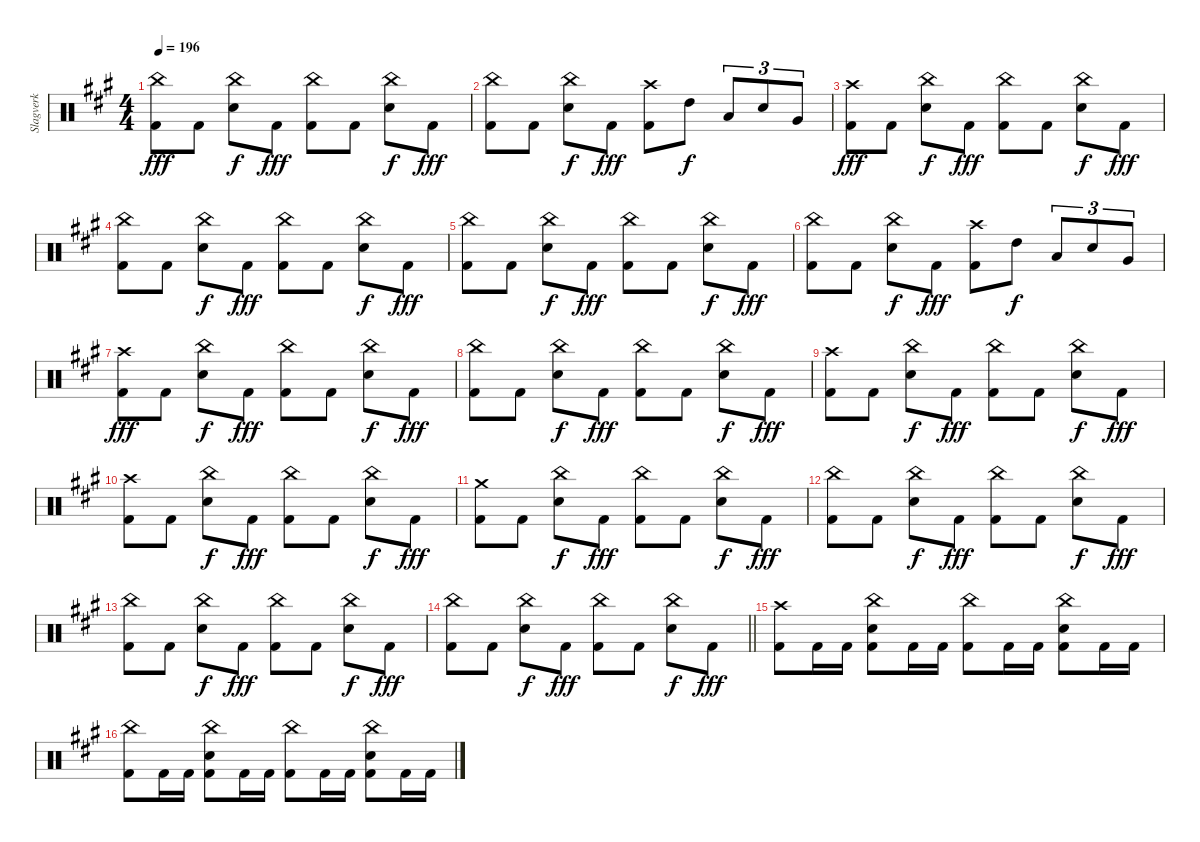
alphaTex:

\track ("Slagverk" "Slagverk") {instrument percussion}
\staff {score}
\articulation defaults
\ts (4 4)
\tempo 196
\clef neutral
\ks a
("China (hit)" "Kick (hit) 2").8{dy fff} "Kick (hit) 2".8 ("China (hit)" "Snare (hit) 2").8{dy f} "Kick (hit) 2".8{dy fff} ("China (hit)" "Kick (hit) 2").8 "Kick (hit) 2".8 ("China (hit)" "Snare (hit) 2").8{dy f} "Kick (hit) 2".8{dy fff} |
("China (hit)" "Kick (hit) 2").8 "Kick (hit) 2".8 ("China (hit)" "Snare (hit) 2").8{dy f} "Kick (hit) 2".8{dy fff} ("Crash high (hit)" "Kick (hit) 2").8 "High Tom (hit)".8{dy f} "Low Tom (hit)".8{tu (3 2)} "Snare (hit) 2".8{tu (3 2)} "Very Low Tom (hit)".8{tu (3 2)} |
("Crash high (hit)" "Kick (hit) 2").8{dy fff} "Kick (hit) 2".8 ("China (hit)" "Snare (hit) 2").8{dy f} "Kick (hit) 2".8{dy fff} ("China (hit)" "Kick (hit) 2").8 "Kick (hit) 2".8 ("China (hit)" "Snare (hit) 2").8{dy f} "Kick (hit) 2".8{dy fff} |
("China (hit)" "Kick (hit) 2").8 "Kick (hit) 2".8 ("China (hit)" "Snare (hit) 2").8{dy f} "Kick (hit) 2".8{dy fff} ("China (hit)" "Kick (hit) 2").8 "Kick (hit) 2".8 ("China (hit)" "Snare (hit) 2").8{dy f} "Kick (hit) 2".8{dy fff} |
("China (hit)" "Kick (hit) 2").8 "Kick (hit) 2".8 ("China (hit)" "Snare (hit) 2").8{dy f} "Kick (hit) 2".8{dy fff} ("China (hit)" "Kick (hit) 2").8 "Kick (hit) 2".8 ("China (hit)" "Snare (hit) 2").8{dy f} "Kick (hit) 2".8{dy fff} |
("China (hit)" "Kick (hit) 2").8 "Kick (hit) 2".8 ("China (hit)" "Snare (hit) 2").8{dy f} "Kick (hit) 2".8{dy fff} ("Crash high (hit)" "Kick (hit) 2").8 "High Tom (hit)".8{dy f} "Low Tom (hit)".8{tu (3 2)} "Snare (hit) 2".8{tu (3 2)} "Very Low Tom (hit)".8{tu (3 2)} |
("Crash high (hit)" "Kick (hit) 2").8{dy fff} "Kick (hit) 2".8 ("China (hit)" "Snare (hit) 2").8{dy f} "Kick (hit) 2".8{dy fff} ("China (hit)" "Kick (hit) 2").8 "Kick (hit) 2".8 ("China (hit)" "Snare (hit) 2").8{dy f} "Kick (hit) 2".8{dy fff} |
("China (hit)" "Kick (hit) 2").8 "Kick (hit) 2".8 ("China (hit)" "Snare (hit) 2").8{dy f} "Kick (hit) 2".8{dy fff} ("China (hit)" "Kick (hit) 2").8 "Kick (hit) 2".8 ("China (hit)" "Snare (hit) 2").8{dy f} "Kick (hit) 2".8{dy fff} |
("Crash high (hit)" "Kick (hit) 2").8 "Kick (hit) 2".8 ("China (hit)" "Snare (hit) 2").8{dy f} "Kick (hit) 2".8{dy fff} ("China (hit)" "Kick (hit) 2").8 "Kick (hit) 2".8 ("China (hit)" "Snare (hit) 2").8{dy f} "Kick (hit) 2".8{dy fff} |
("Crash high (hit)" "Kick (hit) 2").8 "Kick (hit) 2".8 ("China (hit)" "Snare (hit) 2").8{dy f} "Kick (hit) 2".8{dy fff} ("China (hit)" "Kick (hit) 2").8 "Kick (hit) 2".8 ("China (hit)" "Snare (hit) 2").8{dy f} "Kick (hit) 2".8{dy fff} |
("Crash medium (hit)" "Kick (hit) 2").8 "Kick (hit) 2".8 ("China (hit)" "Snare (hit) 2").8{dy f} "Kick (hit) 2".8{dy fff} ("China (hit)" "Kick (hit) 2").8 "Kick (hit) 2".8 ("China (hit)" "Snare (hit) 2").8{dy f} "Kick (hit) 2".8{dy fff} |
("China (hit)" "Kick (hit) 2").8 "Kick (hit) 2".8 ("China (hit)" "Snare (hit) 2").8{dy f} "Kick (hit) 2".8{dy fff} ("China (hit)" "Kick (hit) 2").8 "Kick (hit) 2".8 ("China (hit)" "Snare (hit) 2").8{dy f} "Kick (hit) 2".8{dy fff} |
("China (hit)" "Kick (hit) 2").8 "Kick (hit) 2".8 ("China (hit)" "Snare (hit) 2").8{dy f} "Kick (hit) 2".8{dy fff} ("China (hit)" "Kick (hit) 2").8 "Kick (hit) 2".8 ("China (hit)" "Snare (hit) 2").8{dy f} "Kick (hit) 2".8{dy fff} |
\barLineRight lightlight
("China (hit)" "Kick (hit) 2").8 "Kick (hit) 2".8 ("China (hit)" "Snare (hit) 2").8{dy f} "Kick (hit) 2".8{dy fff} ("China (hit)" "Kick (hit) 2").8 "Kick (hit) 2".8 ("China (hit)" "Snare (hit) 2").8{dy f} "Kick (hit) 2".8{dy fff} |
("Crash high (hit)" "Kick (hit) 2").8 "Kick (hit) 2".16 "Kick (hit) 2".16 ("China (hit)" "Snare (hit) 2" "Kick (hit) 2").8 "Kick (hit) 2".16 "Kick (hit) 2".16 ("China (hit)" "Kick (hit) 2").8 "Kick (hit) 2".16 "Kick (hit) 2".16 ("China (hit)" "Snare (hit) 2" "Kick (hit) 2").8 "Kick (hit) 2".16 "Kick (hit) 2".16 |
("China (hit)" "Kick (hit) 2").8 "Kick (hit) 2".16 "Kick (hit) 2".16 ("China (hit)" "Snare (hit) 2" "Kick (hit) 2").8 "Kick (hit) 2".16 "Kick (hit) 2".16 ("China (hit)" "Kick (hit) 2").8 "Kick (hit) 2".16 "Kick (hit) 2".16 ("China (hit)" "Snare (hit) 2" "Kick (hit) 2").8 "Kick (hit) 2".16 "Kick (hit) 2".16
